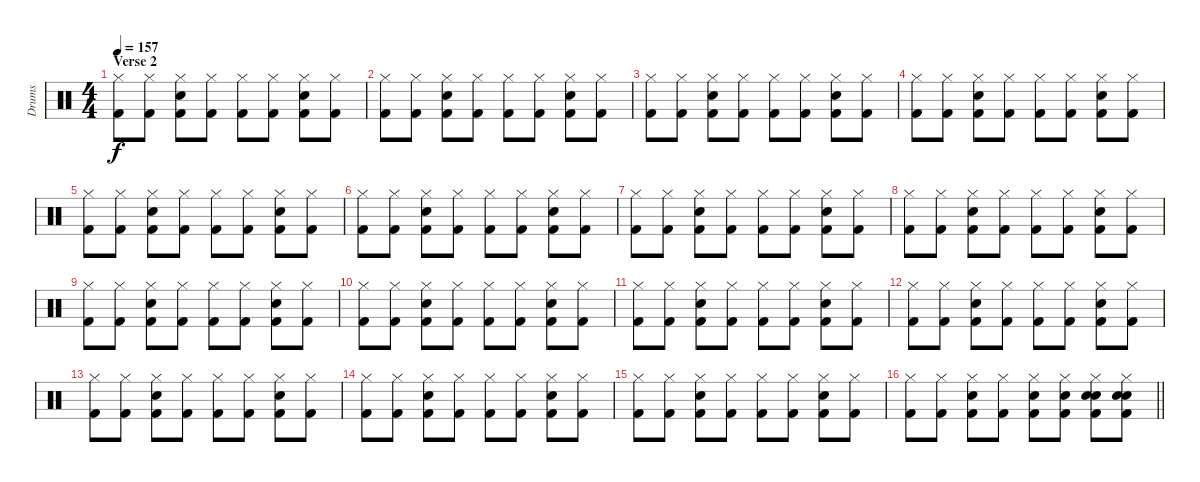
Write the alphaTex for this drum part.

\track ("Drums" "Drums") {instrument percussion}
\staff {score}
\articulation defaults
\ts (4 4)
\section ("" "Verse 2")
\tempo 157
\clef neutral
\ks c
("Hi-Hat (closed)" "Kick (hit) 2").8{dy f} ("Hi-Hat (closed)" "Kick (hit) 2").8 ("Hi-Hat (closed)" "Electric Snare (hit)" "Kick (hit) 2").8 ("Hi-Hat (closed)" "Kick (hit) 2").8 ("Hi-Hat (closed)" "Kick (hit) 2").8 ("Hi-Hat (closed)" "Kick (hit) 2").8 ("Hi-Hat (closed)" "Kick (hit) 2" "Electric Snare (hit)").8 ("Hi-Hat (closed)" "Kick (hit) 2").8 |
("Hi-Hat (closed)" "Kick (hit) 2").8 ("Hi-Hat (closed)" "Kick (hit) 2").8 ("Hi-Hat (closed)" "Electric Snare (hit)" "Kick (hit) 2").8 ("Hi-Hat (closed)" "Kick (hit) 2").8 ("Hi-Hat (closed)" "Kick (hit) 2").8 ("Hi-Hat (closed)" "Kick (hit) 2").8 ("Hi-Hat (closed)" "Kick (hit) 2" "Electric Snare (hit)").8 ("Hi-Hat (closed)" "Kick (hit) 2").8 |
("Hi-Hat (closed)" "Kick (hit) 2").8 ("Hi-Hat (closed)" "Kick (hit) 2").8 ("Hi-Hat (closed)" "Electric Snare (hit)" "Kick (hit) 2").8 ("Hi-Hat (closed)" "Kick (hit) 2").8 ("Hi-Hat (closed)" "Kick (hit) 2").8 ("Hi-Hat (closed)" "Kick (hit) 2").8 ("Hi-Hat (closed)" "Kick (hit) 2" "Electric Snare (hit)").8 ("Hi-Hat (closed)" "Kick (hit) 2").8 |
("Hi-Hat (closed)" "Kick (hit) 2").8 ("Hi-Hat (closed)" "Kick (hit) 2").8 ("Hi-Hat (closed)" "Electric Snare (hit)" "Kick (hit) 2").8 ("Hi-Hat (closed)" "Kick (hit) 2").8 ("Hi-Hat (closed)" "Kick (hit) 2").8 ("Hi-Hat (closed)" "Kick (hit) 2").8 ("Hi-Hat (closed)" "Kick (hit) 2" "Electric Snare (hit)").8 ("Hi-Hat (closed)" "Kick (hit) 2").8 |
("Hi-Hat (closed)" "Kick (hit) 2").8 ("Hi-Hat (closed)" "Kick (hit) 2").8 ("Hi-Hat (closed)" "Electric Snare (hit)" "Kick (hit) 2").8 ("Hi-Hat (closed)" "Kick (hit) 2").8 ("Hi-Hat (closed)" "Kick (hit) 2").8 ("Hi-Hat (closed)" "Kick (hit) 2").8 ("Hi-Hat (closed)" "Kick (hit) 2" "Electric Snare (hit)").8 ("Hi-Hat (closed)" "Kick (hit) 2").8 |
("Hi-Hat (closed)" "Kick (hit) 2").8 ("Hi-Hat (closed)" "Kick (hit) 2").8 ("Hi-Hat (closed)" "Electric Snare (hit)" "Kick (hit) 2").8 ("Hi-Hat (closed)" "Kick (hit) 2").8 ("Hi-Hat (closed)" "Kick (hit) 2").8 ("Hi-Hat (closed)" "Kick (hit) 2").8 ("Hi-Hat (closed)" "Kick (hit) 2" "Electric Snare (hit)").8 ("Hi-Hat (closed)" "Kick (hit) 2").8 |
("Hi-Hat (closed)" "Kick (hit) 2").8 ("Hi-Hat (closed)" "Kick (hit) 2").8 ("Hi-Hat (closed)" "Electric Snare (hit)" "Kick (hit) 2").8 ("Hi-Hat (closed)" "Kick (hit) 2").8 ("Hi-Hat (closed)" "Kick (hit) 2").8 ("Hi-Hat (closed)" "Kick (hit) 2").8 ("Hi-Hat (closed)" "Kick (hit) 2" "Electric Snare (hit)").8 ("Hi-Hat (closed)" "Kick (hit) 2").8 |
("Hi-Hat (closed)" "Kick (hit) 2").8 ("Hi-Hat (closed)" "Kick (hit) 2").8 ("Hi-Hat (closed)" "Electric Snare (hit)" "Kick (hit) 2").8 ("Hi-Hat (closed)" "Kick (hit) 2").8 ("Hi-Hat (closed)" "Kick (hit) 2").8 ("Hi-Hat (closed)" "Kick (hit) 2").8 ("Hi-Hat (closed)" "Kick (hit) 2" "Electric Snare (hit)").8 ("Hi-Hat (closed)" "Kick (hit) 2").8 |
("Hi-Hat (closed)" "Kick (hit) 2").8 ("Hi-Hat (closed)" "Kick (hit) 2").8 ("Hi-Hat (closed)" "Electric Snare (hit)" "Kick (hit) 2").8 ("Hi-Hat (closed)" "Kick (hit) 2").8 ("Hi-Hat (closed)" "Kick (hit) 2").8 ("Hi-Hat (closed)" "Kick (hit) 2").8 ("Hi-Hat (closed)" "Kick (hit) 2" "Electric Snare (hit)").8 ("Hi-Hat (closed)" "Kick (hit) 2").8 |
("Hi-Hat (closed)" "Kick (hit) 2").8 ("Hi-Hat (closed)" "Kick (hit) 2").8 ("Hi-Hat (closed)" "Electric Snare (hit)" "Kick (hit) 2").8 ("Hi-Hat (closed)" "Kick (hit) 2").8 ("Hi-Hat (closed)" "Kick (hit) 2").8 ("Hi-Hat (closed)" "Kick (hit) 2").8 ("Hi-Hat (closed)" "Kick (hit) 2" "Electric Snare (hit)").8 ("Hi-Hat (closed)" "Kick (hit) 2").8 |
("Hi-Hat (closed)" "Kick (hit) 2").8 ("Hi-Hat (closed)" "Kick (hit) 2").8 ("Hi-Hat (closed)" "Electric Snare (hit)" "Kick (hit) 2").8 ("Hi-Hat (closed)" "Kick (hit) 2").8 ("Hi-Hat (closed)" "Kick (hit) 2").8 ("Hi-Hat (closed)" "Kick (hit) 2").8 ("Hi-Hat (closed)" "Kick (hit) 2" "Electric Snare (hit)").8 ("Hi-Hat (closed)" "Kick (hit) 2").8 |
("Hi-Hat (closed)" "Kick (hit) 2").8 ("Hi-Hat (closed)" "Kick (hit) 2").8 ("Hi-Hat (closed)" "Electric Snare (hit)" "Kick (hit) 2").8 ("Hi-Hat (closed)" "Kick (hit) 2").8 ("Hi-Hat (closed)" "Kick (hit) 2").8 ("Hi-Hat (closed)" "Kick (hit) 2").8 ("Hi-Hat (closed)" "Kick (hit) 2" "Electric Snare (hit)").8 ("Hi-Hat (closed)" "Kick (hit) 2").8 |
("Hi-Hat (closed)" "Kick (hit) 2").8 ("Hi-Hat (closed)" "Kick (hit) 2").8 ("Hi-Hat (closed)" "Electric Snare (hit)" "Kick (hit) 2").8 ("Hi-Hat (closed)" "Kick (hit) 2").8 ("Hi-Hat (closed)" "Kick (hit) 2").8 ("Hi-Hat (closed)" "Kick (hit) 2").8 ("Hi-Hat (closed)" "Kick (hit) 2" "Electric Snare (hit)").8 ("Hi-Hat (closed)" "Kick (hit) 2").8 |
("Hi-Hat (closed)" "Kick (hit) 2").8 ("Hi-Hat (closed)" "Kick (hit) 2").8 ("Hi-Hat (closed)" "Electric Snare (hit)" "Kick (hit) 2").8 ("Hi-Hat (closed)" "Kick (hit) 2").8 ("Hi-Hat (closed)" "Kick (hit) 2").8 ("Hi-Hat (closed)" "Kick (hit) 2").8 ("Hi-Hat (closed)" "Kick (hit) 2" "Electric Snare (hit)").8 ("Hi-Hat (closed)" "Kick (hit) 2").8 |
("Hi-Hat (closed)" "Kick (hit) 2").8 ("Hi-Hat (closed)" "Kick (hit) 2").8 ("Hi-Hat (closed)" "Electric Snare (hit)" "Kick (hit) 2").8 ("Hi-Hat (closed)" "Kick (hit) 2").8 ("Hi-Hat (closed)" "Kick (hit) 2").8 ("Hi-Hat (closed)" "Kick (hit) 2").8 ("Hi-Hat (closed)" "Kick (hit) 2" "Electric Snare (hit)").8 ("Hi-Hat (closed)" "Kick (hit) 2").8 |
\barLineRight lightlight
("Hi-Hat (closed)" "Kick (hit) 2").8 ("Hi-Hat (closed)" "Kick (hit) 2").8 ("Hi-Hat (closed)" "Electric Snare (hit)" "Kick (hit) 2").8 ("Hi-Hat (closed)" "Kick (hit) 2").8 ("Hi-Hat (closed)" "Electric Snare (hit)" "Kick (hit) 2").8 ("Hi-Hat (closed)" "Electric Snare (hit)" "Kick (hit) 2").8 ("Hi-Hat (closed)" "Electric Snare (hit)" "Kick (hit) 2" "Electric Snare (hit)").8 ("Hi-Hat (closed)" "Electric Snare (hit)" "Electric Snare (hit)" "Kick (hit) 2").8
